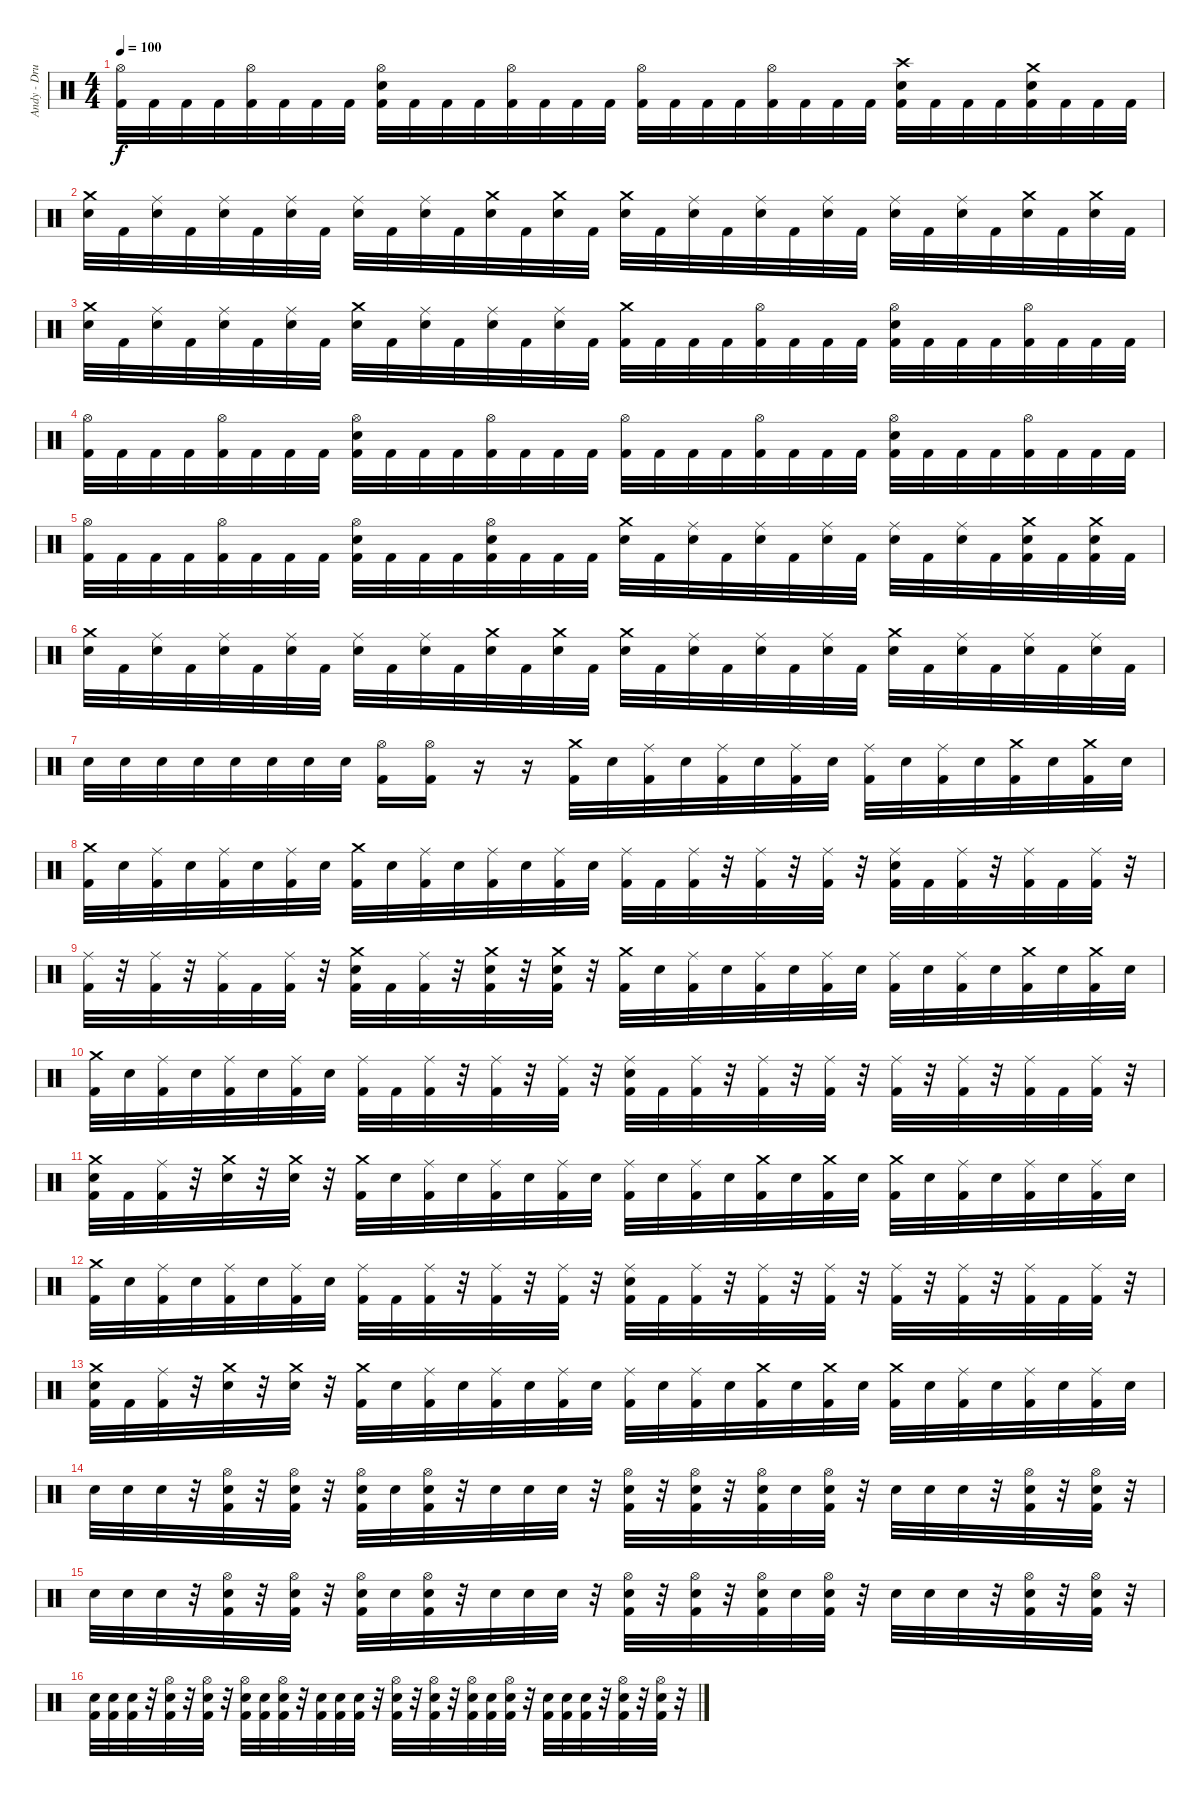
\track ("Andy - Drums" "Andy - Dru") {instrument percussion}
\staff {score}
\articulation defaults
\ts (4 4)
\tempo 100
\clef neutral
\ks c
("Hi-Hat (open)" "Kick (hit) 2").32{dy f} "Kick (hit) 2".32 "Kick (hit) 2".32 "Kick (hit) 2".32 ("Hi-Hat (open)" "Kick (hit) 2").32 "Kick (hit) 2".32 "Kick (hit) 2".32 "Kick (hit) 2".32 ("Hi-Hat (open)" "Electric Snare (hit)" "Kick (hit) 2").32 "Kick (hit) 2".32 "Kick (hit) 2".32 "Kick (hit) 2".32 ("Hi-Hat (open)" "Kick (hit) 2").32 "Kick (hit) 2".32 "Kick (hit) 2".32 "Kick (hit) 2".32 ("Hi-Hat (open)" "Kick (hit) 2").32 "Kick (hit) 2".32 "Kick (hit) 2".32 "Kick (hit) 2".32 ("Hi-Hat (open)" "Kick (hit) 2").32 "Kick (hit) 2".32 "Kick (hit) 2".32 "Kick (hit) 2".32 ("Crash high (hit)" "Electric Snare (hit)" "Kick (hit) 2").32 "Kick (hit) 2".32 "Kick (hit) 2".32 "Kick (hit) 2".32 ("Crash medium (hit)" "Electric Snare (hit)" "Kick (hit) 2").32 "Kick (hit) 2".32 "Kick (hit) 2".32 "Kick (hit) 2".32 |
("Crash medium (hit)" "Electric Snare (hit)").32 "Kick (hit) 2".32 ("Ride (middle)" "Electric Snare (hit)").32 "Kick (hit) 2".32 ("Ride (middle)" "Electric Snare (hit)").32 "Kick (hit) 2".32 ("Ride (middle)" "Electric Snare (hit)").32 "Kick (hit) 2".32 ("Ride (middle)" "Electric Snare (hit)").32 "Kick (hit) 2".32 ("Ride (middle)" "Electric Snare (hit)").32 "Kick (hit) 2".32 ("Crash medium (hit)" "Electric Snare (hit)").32 "Kick (hit) 2".32 ("Crash medium (hit)" "Electric Snare (hit)").32 "Kick (hit) 2".32 ("Crash medium (hit)" "Electric Snare (hit)").32 "Kick (hit) 2".32 ("Ride (middle)" "Electric Snare (hit)").32 "Kick (hit) 2".32 ("Ride (middle)" "Electric Snare (hit)").32 "Kick (hit) 2".32 ("Ride (middle)" "Electric Snare (hit)").32 "Kick (hit) 2".32 ("Ride (middle)" "Electric Snare (hit)").32 "Kick (hit) 2".32 ("Ride (middle)" "Electric Snare (hit)").32 "Kick (hit) 2".32 ("Crash medium (hit)" "Electric Snare (hit)").32 "Kick (hit) 2".32 ("Crash medium (hit)" "Electric Snare (hit)").32 "Kick (hit) 2".32 |
("Crash medium (hit)" "Electric Snare (hit)").32 "Kick (hit) 2".32 ("Ride (middle)" "Electric Snare (hit)").32 "Kick (hit) 2".32 ("Ride (middle)" "Electric Snare (hit)").32 "Kick (hit) 2".32 ("Ride (middle)" "Electric Snare (hit)").32 "Kick (hit) 2".32 ("Crash medium (hit)" "Electric Snare (hit)").32 "Kick (hit) 2".32 ("Ride (middle)" "Electric Snare (hit)").32 "Kick (hit) 2".32 ("Ride (middle)" "Electric Snare (hit)").32 "Kick (hit) 2".32 ("Ride (middle)" "Electric Snare (hit)").32 "Kick (hit) 2".32 ("Crash medium (hit)" "Kick (hit) 2").32 "Kick (hit) 2".32 "Kick (hit) 2".32 "Kick (hit) 2".32 ("Hi-Hat (open)" "Kick (hit) 2").32 "Kick (hit) 2".32 "Kick (hit) 2".32 "Kick (hit) 2".32 ("Hi-Hat (open)" "Electric Snare (hit)" "Kick (hit) 2").32 "Kick (hit) 2".32 "Kick (hit) 2".32 "Kick (hit) 2".32 ("Hi-Hat (open)" "Kick (hit) 2").32 "Kick (hit) 2".32 "Kick (hit) 2".32 "Kick (hit) 2".32 |
("Hi-Hat (open)" "Kick (hit) 2").32 "Kick (hit) 2".32 "Kick (hit) 2".32 "Kick (hit) 2".32 ("Hi-Hat (open)" "Kick (hit) 2").32 "Kick (hit) 2".32 "Kick (hit) 2".32 "Kick (hit) 2".32 ("Hi-Hat (open)" "Electric Snare (hit)" "Kick (hit) 2").32 "Kick (hit) 2".32 "Kick (hit) 2".32 "Kick (hit) 2".32 ("Hi-Hat (open)" "Kick (hit) 2").32 "Kick (hit) 2".32 "Kick (hit) 2".32 "Kick (hit) 2".32 ("Hi-Hat (open)" "Kick (hit) 2").32 "Kick (hit) 2".32 "Kick (hit) 2".32 "Kick (hit) 2".32 ("Hi-Hat (open)" "Kick (hit) 2").32 "Kick (hit) 2".32 "Kick (hit) 2".32 "Kick (hit) 2".32 ("Hi-Hat (open)" "Electric Snare (hit)" "Kick (hit) 2").32 "Kick (hit) 2".32 "Kick (hit) 2".32 "Kick (hit) 2".32 ("Hi-Hat (open)" "Kick (hit) 2").32 "Kick (hit) 2".32 "Kick (hit) 2".32 "Kick (hit) 2".32 |
("Hi-Hat (open)" "Kick (hit) 2").32 "Kick (hit) 2".32 "Kick (hit) 2".32 "Kick (hit) 2".32 ("Hi-Hat (open)" "Kick (hit) 2").32 "Kick (hit) 2".32 "Kick (hit) 2".32 "Kick (hit) 2".32 ("Hi-Hat (open)" "Electric Snare (hit)" "Kick (hit) 2").32 "Kick (hit) 2".32 "Kick (hit) 2".32 "Kick (hit) 2".32 ("Hi-Hat (open)" "Electric Snare (hit)" "Kick (hit) 2").32 "Kick (hit) 2".32 "Kick (hit) 2".32 "Kick (hit) 2".32 ("Crash medium (hit)" "Electric Snare (hit)").32 "Kick (hit) 2".32 ("Ride (middle)" "Electric Snare (hit)").32 "Kick (hit) 2".32 ("Ride (middle)" "Electric Snare (hit)").32 "Kick (hit) 2".32 ("Ride (middle)" "Electric Snare (hit)").32 "Kick (hit) 2".32 ("Ride (middle)" "Electric Snare (hit)").32 "Kick (hit) 2".32 ("Ride (middle)" "Electric Snare (hit)").32 "Kick (hit) 2".32 ("Crash medium (hit)" "Electric Snare (hit)" "Kick (hit) 2").32 "Kick (hit) 2".32 ("Crash medium (hit)" "Electric Snare (hit)" "Kick (hit) 2").32 "Kick (hit) 2".32 |
("Crash medium (hit)" "Electric Snare (hit)").32 "Kick (hit) 2".32 ("Ride (middle)" "Electric Snare (hit)").32 "Kick (hit) 2".32 ("Ride (middle)" "Electric Snare (hit)").32 "Kick (hit) 2".32 ("Ride (middle)" "Electric Snare (hit)").32 "Kick (hit) 2".32 ("Ride (middle)" "Electric Snare (hit)").32 "Kick (hit) 2".32 ("Ride (middle)" "Electric Snare (hit)").32 "Kick (hit) 2".32 ("Crash medium (hit)" "Electric Snare (hit)").32 "Kick (hit) 2".32 ("Crash medium (hit)" "Electric Snare (hit)").32 "Kick (hit) 2".32 ("Crash medium (hit)" "Electric Snare (hit)").32 "Kick (hit) 2".32 ("Ride (middle)" "Electric Snare (hit)").32 "Kick (hit) 2".32 ("Ride (middle)" "Electric Snare (hit)").32 "Kick (hit) 2".32 ("Ride (middle)" "Electric Snare (hit)").32 "Kick (hit) 2".32 ("Crash medium (hit)" "Electric Snare (hit)").32 "Kick (hit) 2".32 ("Ride (middle)" "Electric Snare (hit)").32 "Kick (hit) 2".32 ("Ride (middle)" "Electric Snare (hit)").32 "Kick (hit) 2".32 ("Ride (middle)" "Electric Snare (hit)").32 "Kick (hit) 2".32 |
"Electric Snare (hit)".32 "Electric Snare (hit)".32 "Electric Snare (hit)".32 "Electric Snare (hit)".32 "Electric Snare (hit)".32 "Electric Snare (hit)".32 "Electric Snare (hit)".32 "Electric Snare (hit)".32 ("Hi-Hat (open)" "Kick (hit) 2").16 ("Hi-Hat (open)" "Kick (hit) 2").16 r.16 r.16 ("Crash medium (hit)" "Kick (hit) 2").32 "Electric Snare (hit)".32 ("Ride (middle)" "Kick (hit) 2").32 "Electric Snare (hit)".32 ("Ride (middle)" "Kick (hit) 2").32 "Electric Snare (hit)".32 ("Ride (middle)" "Kick (hit) 2").32 "Electric Snare (hit)".32 ("Ride (middle)" "Kick (hit) 2").32 "Electric Snare (hit)".32 ("Ride (middle)" "Kick (hit) 2").32 "Electric Snare (hit)".32 ("Crash medium (hit)" "Kick (hit) 2").32 "Electric Snare (hit)".32 ("Crash medium (hit)" "Kick (hit) 2").32 "Electric Snare (hit)".32 |
("Crash medium (hit)" "Kick (hit) 2").32 "Electric Snare (hit)".32 ("Ride (middle)" "Kick (hit) 2").32 "Electric Snare (hit)".32 ("Ride (middle)" "Kick (hit) 2").32 "Electric Snare (hit)".32 ("Ride (middle)" "Kick (hit) 2").32 "Electric Snare (hit)".32 ("Crash medium (hit)" "Kick (hit) 2").32 "Electric Snare (hit)".32 ("Ride (middle)" "Kick (hit) 2").32 "Electric Snare (hit)".32 ("Ride (middle)" "Kick (hit) 2").32 "Electric Snare (hit)".32 ("Ride (middle)" "Kick (hit) 2").32 "Electric Snare (hit)".32 ("Ride (middle)" "Kick (hit) 2").32 "Kick (hit) 2".32 ("Ride (middle)" "Kick (hit) 2").32 r.32 ("Ride (middle)" "Kick (hit) 2").32 r.32 ("Ride (middle)" "Kick (hit) 2").32 r.32 ("Ride (middle)" "Electric Snare (hit)" "Kick (hit) 2").32 "Kick (hit) 2".32 ("Ride (middle)" "Kick (hit) 2").32 r.32 ("Ride (middle)" "Kick (hit) 2").32 "Kick (hit) 2".32 ("Ride (middle)" "Kick (hit) 2").32 r.32 |
("Ride (middle)" "Kick (hit) 2").32 r.32 ("Ride (middle)" "Kick (hit) 2").32 r.32 ("Ride (middle)" "Kick (hit) 2").32 "Kick (hit) 2".32 ("Ride (middle)" "Kick (hit) 2").32 r.32 ("Crash medium (hit)" "Electric Snare (hit)" "Kick (hit) 2").32 "Kick (hit) 2".32 ("Ride (middle)" "Kick (hit) 2").32 r.32 ("Crash medium (hit)" "Electric Snare (hit)" "Kick (hit) 2").32 r.32 ("Crash medium (hit)" "Electric Snare (hit)" "Kick (hit) 2").32 r.32 ("Crash medium (hit)" "Kick (hit) 2").32 "Electric Snare (hit)".32 ("Ride (middle)" "Kick (hit) 2").32 "Electric Snare (hit)".32 ("Ride (middle)" "Kick (hit) 2").32 "Electric Snare (hit)".32 ("Ride (middle)" "Kick (hit) 2").32 "Electric Snare (hit)".32 ("Ride (middle)" "Kick (hit) 2").32 "Electric Snare (hit)".32 ("Ride (middle)" "Kick (hit) 2").32 "Electric Snare (hit)".32 ("Crash medium (hit)" "Kick (hit) 2").32 "Electric Snare (hit)".32 ("Crash medium (hit)" "Kick (hit) 2").32 "Electric Snare (hit)".32 |
("Crash medium (hit)" "Kick (hit) 2").32 "Electric Snare (hit)".32 ("Ride (middle)" "Kick (hit) 2").32 "Electric Snare (hit)".32 ("Ride (middle)" "Kick (hit) 2").32 "Electric Snare (hit)".32 ("Ride (middle)" "Kick (hit) 2").32 "Electric Snare (hit)".32 ("Ride (middle)" "Kick (hit) 2").32 "Kick (hit) 2".32 ("Ride (middle)" "Kick (hit) 2").32 r.32 ("Ride (middle)" "Kick (hit) 2").32 r.32 ("Ride (middle)" "Kick (hit) 2").32 r.32 ("Ride (middle)" "Electric Snare (hit)" "Kick (hit) 2").32 "Kick (hit) 2".32 ("Ride (middle)" "Kick (hit) 2").32 r.32 ("Ride (middle)" "Kick (hit) 2").32 r.32 ("Ride (middle)" "Kick (hit) 2").32 r.32 ("Ride (middle)" "Kick (hit) 2").32 r.32 ("Ride (middle)" "Kick (hit) 2").32 r.32 ("Ride (middle)" "Kick (hit) 2").32 "Kick (hit) 2".32 ("Ride (middle)" "Kick (hit) 2").32 r.32 |
("Crash medium (hit)" "Electric Snare (hit)" "Kick (hit) 2").32 "Kick (hit) 2".32 ("Ride (middle)" "Kick (hit) 2").32 r.32 ("Crash medium (hit)" "Electric Snare (hit)").32 r.32 ("Crash medium (hit)" "Electric Snare (hit)").32 r.32 ("Crash medium (hit)" "Kick (hit) 2").32 "Electric Snare (hit)".32 ("Ride (middle)" "Kick (hit) 2").32 "Electric Snare (hit)".32 ("Ride (middle)" "Kick (hit) 2").32 "Electric Snare (hit)".32 ("Ride (middle)" "Kick (hit) 2").32 "Electric Snare (hit)".32 ("Ride (middle)" "Kick (hit) 2").32 "Electric Snare (hit)".32 ("Ride (middle)" "Kick (hit) 2").32 "Electric Snare (hit)".32 ("Crash medium (hit)" "Kick (hit) 2").32 "Electric Snare (hit)".32 ("Crash medium (hit)" "Kick (hit) 2").32 "Electric Snare (hit)".32 ("Crash medium (hit)" "Kick (hit) 2").32 "Electric Snare (hit)".32 ("Ride (middle)" "Kick (hit) 2").32 "Electric Snare (hit)".32 ("Ride (middle)" "Kick (hit) 2").32 "Electric Snare (hit)".32 ("Ride (middle)" "Kick (hit) 2").32 "Electric Snare (hit)".32 |
("Crash medium (hit)" "Kick (hit) 2").32 "Electric Snare (hit)".32 ("Ride (middle)" "Kick (hit) 2").32 "Electric Snare (hit)".32 ("Ride (middle)" "Kick (hit) 2").32 "Electric Snare (hit)".32 ("Ride (middle)" "Kick (hit) 2").32 "Electric Snare (hit)".32 ("Ride (middle)" "Kick (hit) 2").32 "Kick (hit) 2".32 ("Ride (middle)" "Kick (hit) 2").32 r.32 ("Ride (middle)" "Kick (hit) 2").32 r.32 ("Ride (middle)" "Kick (hit) 2").32 r.32 ("Ride (middle)" "Electric Snare (hit)" "Kick (hit) 2").32 "Kick (hit) 2".32 ("Ride (middle)" "Kick (hit) 2").32 r.32 ("Ride (middle)" "Kick (hit) 2").32 r.32 ("Ride (middle)" "Kick (hit) 2").32 r.32 ("Ride (middle)" "Kick (hit) 2").32 r.32 ("Ride (middle)" "Kick (hit) 2").32 r.32 ("Ride (middle)" "Kick (hit) 2").32 "Kick (hit) 2".32 ("Ride (middle)" "Kick (hit) 2").32 r.32 |
("Crash medium (hit)" "Electric Snare (hit)" "Kick (hit) 2").32 "Kick (hit) 2".32 ("Ride (middle)" "Kick (hit) 2").32 r.32 ("Crash medium (hit)" "Electric Snare (hit)").32 r.32 ("Crash medium (hit)" "Electric Snare (hit)").32 r.32 ("Crash medium (hit)" "Kick (hit) 2").32 "Electric Snare (hit)".32 ("Ride (middle)" "Kick (hit) 2").32 "Electric Snare (hit)".32 ("Ride (middle)" "Kick (hit) 2").32 "Electric Snare (hit)".32 ("Ride (middle)" "Kick (hit) 2").32 "Electric Snare (hit)".32 ("Ride (middle)" "Kick (hit) 2").32 "Electric Snare (hit)".32 ("Ride (middle)" "Kick (hit) 2").32 "Electric Snare (hit)".32 ("Crash medium (hit)" "Kick (hit) 2").32 "Electric Snare (hit)".32 ("Crash medium (hit)" "Kick (hit) 2").32 "Electric Snare (hit)".32 ("Crash medium (hit)" "Kick (hit) 2").32 "Electric Snare (hit)".32 ("Ride (middle)" "Kick (hit) 2").32 "Electric Snare (hit)".32 ("Ride (middle)" "Kick (hit) 2").32 "Electric Snare (hit)".32 ("Ride (middle)" "Kick (hit) 2").32 "Electric Snare (hit)".32 |
"Electric Snare (hit)".32 "Electric Snare (hit)".32 "Electric Snare (hit)".32 r.32 ("Hi-Hat (open)" "Electric Snare (hit)" "Kick (hit) 2").32 r.32 ("Hi-Hat (open)" "Electric Snare (hit)" "Kick (hit) 2").32 r.32 ("Hi-Hat (open)" "Electric Snare (hit)" "Kick (hit) 2").32 "Electric Snare (hit)".32 ("Hi-Hat (open)" "Electric Snare (hit)" "Kick (hit) 2").32 r.32 "Electric Snare (hit)".32 "Electric Snare (hit)".32 "Electric Snare (hit)".32 r.32 ("Hi-Hat (open)" "Electric Snare (hit)" "Kick (hit) 2").32 r.32 ("Hi-Hat (open)" "Electric Snare (hit)" "Kick (hit) 2").32 r.32 ("Hi-Hat (open)" "Electric Snare (hit)" "Kick (hit) 2").32 "Electric Snare (hit)".32 ("Hi-Hat (open)" "Electric Snare (hit)" "Kick (hit) 2").32 r.32 "Electric Snare (hit)".32 "Electric Snare (hit)".32 "Electric Snare (hit)".32 r.32 ("Hi-Hat (open)" "Electric Snare (hit)" "Kick (hit) 2").32 r.32 ("Hi-Hat (open)" "Electric Snare (hit)" "Kick (hit) 2").32 r.32 |
"Electric Snare (hit)".32 "Electric Snare (hit)".32 "Electric Snare (hit)".32 r.32 ("Hi-Hat (open)" "Electric Snare (hit)" "Kick (hit) 2").32 r.32 ("Hi-Hat (open)" "Electric Snare (hit)" "Kick (hit) 2").32 r.32 ("Hi-Hat (open)" "Electric Snare (hit)" "Kick (hit) 2").32 "Electric Snare (hit)".32 ("Hi-Hat (open)" "Electric Snare (hit)" "Kick (hit) 2").32 r.32 "Electric Snare (hit)".32 "Electric Snare (hit)".32 "Electric Snare (hit)".32 r.32 ("Hi-Hat (open)" "Electric Snare (hit)" "Kick (hit) 2").32 r.32 ("Hi-Hat (open)" "Electric Snare (hit)" "Kick (hit) 2").32 r.32 ("Hi-Hat (open)" "Electric Snare (hit)" "Kick (hit) 2").32 "Electric Snare (hit)".32 ("Hi-Hat (open)" "Electric Snare (hit)" "Kick (hit) 2").32 r.32 "Electric Snare (hit)".32 "Electric Snare (hit)".32 "Electric Snare (hit)".32 r.32 ("Hi-Hat (open)" "Electric Snare (hit)" "Kick (hit) 2").32 r.32 ("Hi-Hat (open)" "Electric Snare (hit)" "Kick (hit) 2").32 r.32 |
("Electric Snare (hit)" "Kick (hit) 2").32 ("Electric Snare (hit)" "Kick (hit) 2").32 ("Electric Snare (hit)" "Kick (hit) 2").32 r.32 ("Hi-Hat (open)" "Electric Snare (hit)" "Kick (hit) 2").32 r.32 ("Hi-Hat (open)" "Electric Snare (hit)" "Kick (hit) 2").32 r.32 ("Hi-Hat (open)" "Electric Snare (hit)" "Kick (hit) 2").32 ("Electric Snare (hit)" "Kick (hit) 2").32 ("Hi-Hat (open)" "Electric Snare (hit)" "Kick (hit) 2").32 r.32 ("Electric Snare (hit)" "Kick (hit) 2").32 ("Electric Snare (hit)" "Kick (hit) 2").32 ("Electric Snare (hit)" "Kick (hit) 2").32 r.32 ("Hi-Hat (open)" "Electric Snare (hit)" "Kick (hit) 2").32 r.32 ("Hi-Hat (open)" "Electric Snare (hit)" "Kick (hit) 2").32 r.32 ("Hi-Hat (open)" "Electric Snare (hit)" "Kick (hit) 2").32 ("Electric Snare (hit)" "Kick (hit) 2").32 ("Hi-Hat (open)" "Electric Snare (hit)" "Kick (hit) 2").32 r.32 ("Electric Snare (hit)" "Kick (hit) 2").32 ("Electric Snare (hit)" "Kick (hit) 2").32 ("Electric Snare (hit)" "Kick (hit) 2").32 r.32 ("Hi-Hat (open)" "Electric Snare (hit)" "Kick (hit) 2").32 r.32 ("Hi-Hat (open)" "Electric Snare (hit)" "Kick (hit) 2").32 r.32
